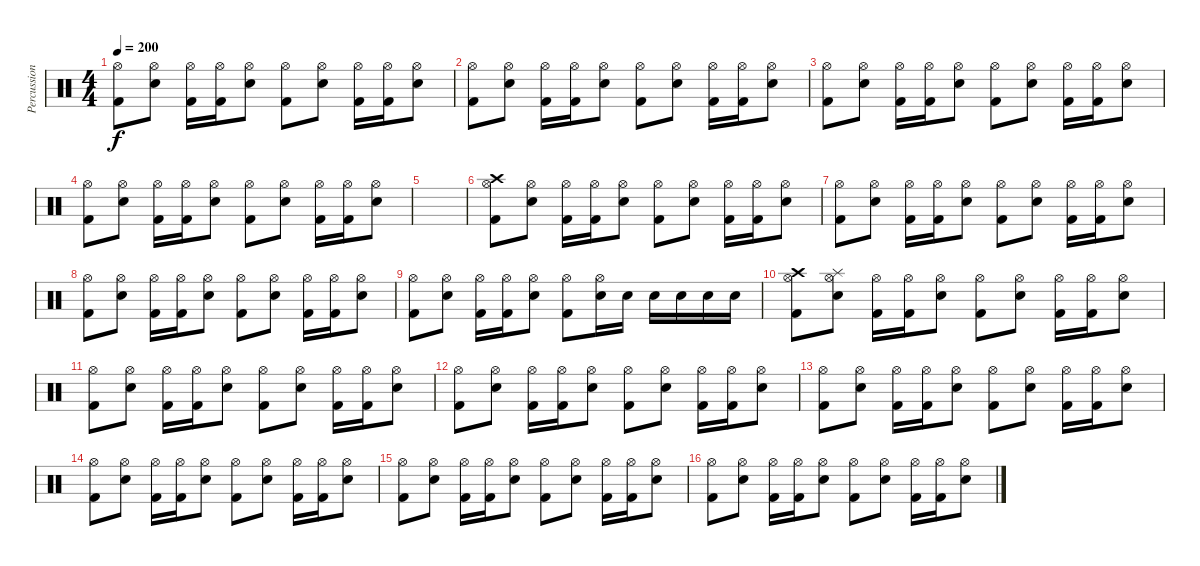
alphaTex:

\track ("Percussions" "Percussion") {instrument percussion}
\staff {score}
\articulation defaults
\ts (4 4)
\tempo 200
\clef neutral
\ks c
("Hi-Hat (open)" "Kick (hit) 2").8{dy f} ("Hi-Hat (open)" "Electric Snare (hit)").8 ("Hi-Hat (open)" "Kick (hit) 2").16 ("Hi-Hat (open)" "Kick (hit) 2").16 ("Hi-Hat (open)" "Electric Snare (hit)").8 ("Hi-Hat (open)" "Kick (hit) 2").8 ("Hi-Hat (open)" "Electric Snare (hit)").8 ("Hi-Hat (open)" "Kick (hit) 2").16 ("Hi-Hat (open)" "Kick (hit) 2").16 ("Hi-Hat (open)" "Electric Snare (hit)").8 |
("Hi-Hat (open)" "Kick (hit) 2").8 ("Hi-Hat (open)" "Electric Snare (hit)").8 ("Hi-Hat (open)" "Kick (hit) 2").16 ("Hi-Hat (open)" "Kick (hit) 2").16 ("Hi-Hat (open)" "Electric Snare (hit)").8 ("Hi-Hat (open)" "Kick (hit) 2").8 ("Hi-Hat (open)" "Electric Snare (hit)").8 ("Hi-Hat (open)" "Kick (hit) 2").16 ("Hi-Hat (open)" "Kick (hit) 2").16 ("Hi-Hat (open)" "Electric Snare (hit)").8 |
("Hi-Hat (open)" "Kick (hit) 2").8 ("Hi-Hat (open)" "Electric Snare (hit)").8 ("Hi-Hat (open)" "Kick (hit) 2").16 ("Hi-Hat (open)" "Kick (hit) 2").16 ("Hi-Hat (open)" "Electric Snare (hit)").8 ("Hi-Hat (open)" "Kick (hit) 2").8 ("Hi-Hat (open)" "Electric Snare (hit)").8 ("Hi-Hat (open)" "Kick (hit) 2").16 ("Hi-Hat (open)" "Kick (hit) 2").16 ("Hi-Hat (open)" "Electric Snare (hit)").8 |
("Hi-Hat (open)" "Kick (hit) 2").8 ("Hi-Hat (open)" "Electric Snare (hit)").8 ("Hi-Hat (open)" "Kick (hit) 2").16 ("Hi-Hat (open)" "Kick (hit) 2").16 ("Hi-Hat (open)" "Electric Snare (hit)").8 ("Hi-Hat (open)" "Kick (hit) 2").8 ("Hi-Hat (open)" "Electric Snare (hit)").8 ("Hi-Hat (open)" "Kick (hit) 2").16 ("Hi-Hat (open)" "Kick (hit) 2").16 ("Hi-Hat (open)" "Electric Snare (hit)").8 |
|
("Crash high (hit)" "Hi-Hat (open)" "Kick (hit) 2").8 ("Hi-Hat (open)" "Electric Snare (hit)").8 ("Hi-Hat (open)" "Kick (hit) 2").16 ("Hi-Hat (open)" "Kick (hit) 2").16 ("Hi-Hat (open)" "Electric Snare (hit)").8 ("Hi-Hat (open)" "Kick (hit) 2").8 ("Hi-Hat (open)" "Electric Snare (hit)").8 ("Hi-Hat (open)" "Kick (hit) 2").16 ("Hi-Hat (open)" "Kick (hit) 2").16 ("Hi-Hat (open)" "Electric Snare (hit)").8 |
("Hi-Hat (open)" "Kick (hit) 2").8 ("Hi-Hat (open)" "Electric Snare (hit)").8 ("Hi-Hat (open)" "Kick (hit) 2").16 ("Hi-Hat (open)" "Kick (hit) 2").16 ("Hi-Hat (open)" "Electric Snare (hit)").8 ("Hi-Hat (open)" "Kick (hit) 2").8 ("Hi-Hat (open)" "Electric Snare (hit)").8 ("Hi-Hat (open)" "Kick (hit) 2").16 ("Hi-Hat (open)" "Kick (hit) 2").16 ("Hi-Hat (open)" "Electric Snare (hit)").8 |
("Hi-Hat (open)" "Kick (hit) 2").8 ("Hi-Hat (open)" "Electric Snare (hit)").8 ("Hi-Hat (open)" "Kick (hit) 2").16 ("Hi-Hat (open)" "Kick (hit) 2").16 ("Hi-Hat (open)" "Electric Snare (hit)").8 ("Hi-Hat (open)" "Kick (hit) 2").8 ("Hi-Hat (open)" "Electric Snare (hit)").8 ("Hi-Hat (open)" "Kick (hit) 2").16 ("Hi-Hat (open)" "Kick (hit) 2").16 ("Hi-Hat (open)" "Electric Snare (hit)").8 |
("Hi-Hat (open)" "Kick (hit) 2").8 ("Hi-Hat (open)" "Electric Snare (hit)").8 ("Hi-Hat (open)" "Kick (hit) 2").16 ("Hi-Hat (open)" "Kick (hit) 2").16 ("Hi-Hat (open)" "Electric Snare (hit)").8 ("Hi-Hat (open)" "Kick (hit) 2").8 ("Hi-Hat (open)" "Electric Snare (hit)").16 "Electric Snare (hit)".16 "Electric Snare (hit)".16 "Electric Snare (hit)".16 "Electric Snare (hit)".16 "Electric Snare (hit)".16 |
("Crash high (hit)" "Hi-Hat (open)" "Kick (hit) 2").8 ("Splash (hit)" "Hi-Hat (open)" "Electric Snare (hit)").8 ("Hi-Hat (open)" "Kick (hit) 2").16 ("Hi-Hat (open)" "Kick (hit) 2").16 ("Hi-Hat (open)" "Electric Snare (hit)").8 ("Hi-Hat (open)" "Kick (hit) 2").8 ("Hi-Hat (open)" "Electric Snare (hit)").8 ("Hi-Hat (open)" "Kick (hit) 2").16 ("Hi-Hat (open)" "Kick (hit) 2").16 ("Hi-Hat (open)" "Electric Snare (hit)").8 |
("Hi-Hat (open)" "Kick (hit) 2").8 ("Hi-Hat (open)" "Electric Snare (hit)").8 ("Hi-Hat (open)" "Kick (hit) 2").16 ("Hi-Hat (open)" "Kick (hit) 2").16 ("Hi-Hat (open)" "Electric Snare (hit)").8 ("Hi-Hat (open)" "Kick (hit) 2").8 ("Hi-Hat (open)" "Electric Snare (hit)").8 ("Hi-Hat (open)" "Kick (hit) 2").16 ("Hi-Hat (open)" "Kick (hit) 2").16 ("Hi-Hat (open)" "Electric Snare (hit)").8 |
("Hi-Hat (open)" "Kick (hit) 2").8 ("Hi-Hat (open)" "Electric Snare (hit)").8 ("Hi-Hat (open)" "Kick (hit) 2").16 ("Hi-Hat (open)" "Kick (hit) 2").16 ("Hi-Hat (open)" "Electric Snare (hit)").8 ("Hi-Hat (open)" "Kick (hit) 2").8 ("Hi-Hat (open)" "Electric Snare (hit)").8 ("Hi-Hat (open)" "Kick (hit) 2").16 ("Hi-Hat (open)" "Kick (hit) 2").16 ("Hi-Hat (open)" "Electric Snare (hit)").8 |
("Hi-Hat (open)" "Kick (hit) 2").8 ("Hi-Hat (open)" "Electric Snare (hit)").8 ("Hi-Hat (open)" "Kick (hit) 2").16 ("Hi-Hat (open)" "Kick (hit) 2").16 ("Hi-Hat (open)" "Electric Snare (hit)").8 ("Hi-Hat (open)" "Kick (hit) 2").8 ("Hi-Hat (open)" "Electric Snare (hit)").8 ("Hi-Hat (open)" "Kick (hit) 2").16 ("Hi-Hat (open)" "Kick (hit) 2").16 ("Hi-Hat (open)" "Electric Snare (hit)").8 |
("Hi-Hat (open)" "Kick (hit) 2").8 ("Hi-Hat (open)" "Electric Snare (hit)").8 ("Hi-Hat (open)" "Kick (hit) 2").16 ("Hi-Hat (open)" "Kick (hit) 2").16 ("Hi-Hat (open)" "Electric Snare (hit)").8 ("Hi-Hat (open)" "Kick (hit) 2").8 ("Hi-Hat (open)" "Electric Snare (hit)").8 ("Hi-Hat (open)" "Kick (hit) 2").16 ("Hi-Hat (open)" "Kick (hit) 2").16 ("Hi-Hat (open)" "Electric Snare (hit)").8 |
("Hi-Hat (open)" "Kick (hit) 2").8 ("Hi-Hat (open)" "Electric Snare (hit)").8 ("Hi-Hat (open)" "Kick (hit) 2").16 ("Hi-Hat (open)" "Kick (hit) 2").16 ("Hi-Hat (open)" "Electric Snare (hit)").8 ("Hi-Hat (open)" "Kick (hit) 2").8 ("Hi-Hat (open)" "Electric Snare (hit)").8 ("Hi-Hat (open)" "Kick (hit) 2").16 ("Hi-Hat (open)" "Kick (hit) 2").16 ("Hi-Hat (open)" "Electric Snare (hit)").8 |
("Hi-Hat (open)" "Kick (hit) 2").8 ("Hi-Hat (open)" "Electric Snare (hit)").8 ("Hi-Hat (open)" "Kick (hit) 2").16 ("Hi-Hat (open)" "Kick (hit) 2").16 ("Hi-Hat (open)" "Electric Snare (hit)").8 ("Hi-Hat (open)" "Kick (hit) 2").8 ("Hi-Hat (open)" "Electric Snare (hit)").8 ("Hi-Hat (open)" "Kick (hit) 2").16 ("Hi-Hat (open)" "Kick (hit) 2").16 ("Hi-Hat (open)" "Electric Snare (hit)").8
